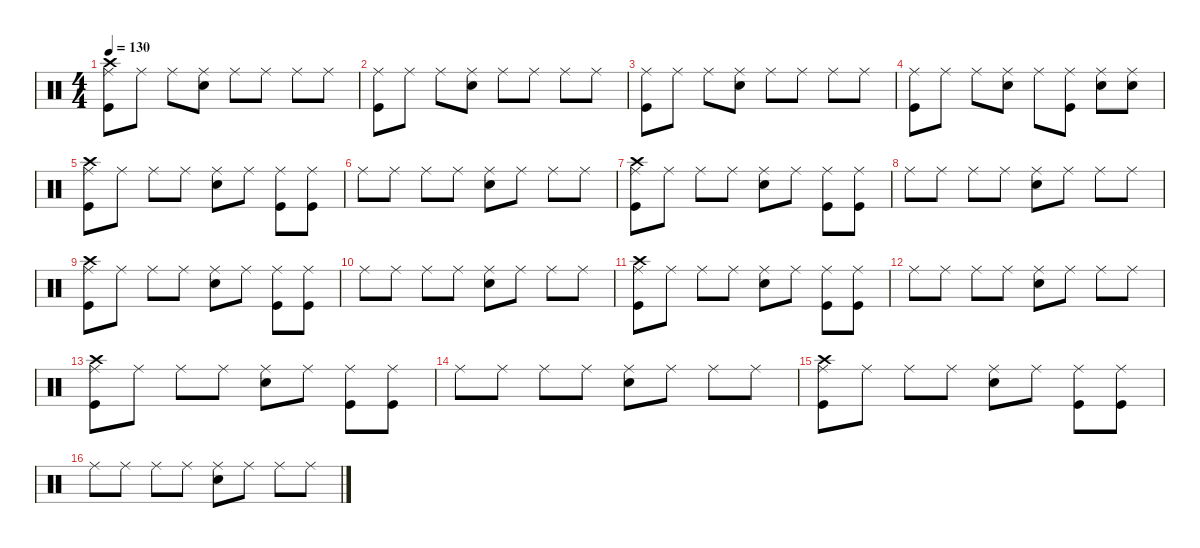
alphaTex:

\defaultSystemsLayout 4
\hideDynamics
\bracketExtendMode nobrackets
\singleTrackTrackNamePolicy hidden
\multiTrackTrackNamePolicy hidden
\firstSystemTrackNameMode fullname
\firstSystemTrackNameOrientation horizontal
\otherSystemsTrackNameOrientation horizontal
\track ("Percussion" "drm.") {instrument percussion}
\staff {score}
\articulation defaults
\ts (4 4)
\tempo 130
\clef neutral
\ks c
("Crash high (hit)" "Ride (middle)" "Kick (hit)").8{dy f beam Down} "Ride (middle)".8{beam Down} "Ride (middle)".8{beam Down} ("Ride (middle)" "Snare (hit) 2").8{beam Down} "Ride (middle)".8{beam Down} "Ride (middle)".8{beam Down} "Ride (middle)".8{beam Down} "Ride (middle)".8{beam Down} |
("Ride (middle)" "Kick (hit)").8{beam Down} "Ride (middle)".8{beam Down} "Ride (middle)".8{beam Down} ("Ride (middle)" "Snare (hit) 2").8{beam Down} "Ride (middle)".8{beam Down} "Ride (middle)".8{beam Down} "Ride (middle)".8{beam Down} "Ride (middle)".8{beam Down} |
("Ride (middle)" "Kick (hit)").8{beam Down} "Ride (middle)".8{beam Down} "Ride (middle)".8{beam Down} ("Ride (middle)" "Snare (hit) 2").8{beam Down} "Ride (middle)".8{beam Down} "Ride (middle)".8{beam Down} "Ride (middle)".8{beam Down} "Ride (middle)".8{beam Down} |
("Ride (middle)" "Kick (hit)").8{beam Down} "Ride (middle)".8{beam Down} "Ride (middle)".8{beam Down} ("Ride (middle)" "Snare (hit) 2").8{beam Down} "Ride (middle)".8{beam Down} ("Ride (middle)" "Kick (hit)").8{beam Down} ("Ride (middle)" "Snare (hit) 2").8{beam Down} ("Ride (middle)" "Snare (hit) 2").8{beam Down} |
("Crash high (hit)" "Ride (middle)" "Kick (hit)").8{beam Down} "Ride (middle)".8{beam Down} "Ride (middle)".8{beam Down} "Ride (middle)".8{beam Down} ("Ride (middle)" "Snare (hit) 2").8{beam Down} "Ride (middle)".8{beam Down} ("Ride (middle)" "Kick (hit)").8{beam Down} ("Ride (middle)" "Kick (hit)").8{beam Down} |
"Ride (middle)".8{beam Down} "Ride (middle)".8{beam Down} "Ride (middle)".8{beam Down} "Ride (middle)".8{beam Down} ("Ride (middle)" "Snare (hit) 2").8{beam Down} "Ride (middle)".8{beam Down} "Ride (middle)".8{beam Down} "Ride (middle)".8{beam Down} |
("Crash high (hit)" "Ride (middle)" "Kick (hit)").8{beam Down} "Ride (middle)".8{beam Down} "Ride (middle)".8{beam Down} "Ride (middle)".8{beam Down} ("Ride (middle)" "Snare (hit) 2").8{beam Down} "Ride (middle)".8{beam Down} ("Ride (middle)" "Kick (hit)").8{beam Down} ("Ride (middle)" "Kick (hit)").8{beam Down} |
"Ride (middle)".8{beam Down} "Ride (middle)".8{beam Down} "Ride (middle)".8{beam Down} "Ride (middle)".8{beam Down} ("Ride (middle)" "Snare (hit) 2").8{beam Down} "Ride (middle)".8{beam Down} "Ride (middle)".8{beam Down} "Ride (middle)".8{beam Down} |
("Crash high (hit)" "Ride (middle)" "Kick (hit)").8{beam Down} "Ride (middle)".8{beam Down} "Ride (middle)".8{beam Down} "Ride (middle)".8{beam Down} ("Ride (middle)" "Snare (hit) 2").8{beam Down} "Ride (middle)".8{beam Down} ("Ride (middle)" "Kick (hit)").8{beam Down} ("Ride (middle)" "Kick (hit)").8{beam Down} |
"Ride (middle)".8{beam Down} "Ride (middle)".8{beam Down} "Ride (middle)".8{beam Down} "Ride (middle)".8{beam Down} ("Ride (middle)" "Snare (hit) 2").8{beam Down} "Ride (middle)".8{beam Down} "Ride (middle)".8{beam Down} "Ride (middle)".8{beam Down} |
("Crash high (hit)" "Ride (middle)" "Kick (hit)").8{beam Down} "Ride (middle)".8{beam Down} "Ride (middle)".8{beam Down} "Ride (middle)".8{beam Down} ("Ride (middle)" "Snare (hit) 2").8{beam Down} "Ride (middle)".8{beam Down} ("Ride (middle)" "Kick (hit)").8{beam Down} ("Ride (middle)" "Kick (hit)").8{beam Down} |
"Ride (middle)".8{beam Down} "Ride (middle)".8{beam Down} "Ride (middle)".8{beam Down} "Ride (middle)".8{beam Down} ("Ride (middle)" "Snare (hit) 2").8{beam Down} "Ride (middle)".8{beam Down} "Ride (middle)".8{beam Down} "Ride (middle)".8{beam Down} |
("Crash high (hit)" "Ride (middle)" "Kick (hit)").8{beam Down} "Ride (middle)".8{beam Down} "Ride (middle)".8{beam Down} "Ride (middle)".8{beam Down} ("Ride (middle)" "Snare (hit) 2").8{beam Down} "Ride (middle)".8{beam Down} ("Ride (middle)" "Kick (hit)").8{beam Down} ("Ride (middle)" "Kick (hit)").8{beam Down} |
"Ride (middle)".8{beam Down} "Ride (middle)".8{beam Down} "Ride (middle)".8{beam Down} "Ride (middle)".8{beam Down} ("Ride (middle)" "Snare (hit) 2").8{beam Down} "Ride (middle)".8{beam Down} "Ride (middle)".8{beam Down} "Ride (middle)".8{beam Down} |
("Crash high (hit)" "Ride (middle)" "Kick (hit)").8{beam Down} "Ride (middle)".8{beam Down} "Ride (middle)".8{beam Down} "Ride (middle)".8{beam Down} ("Ride (middle)" "Snare (hit) 2").8{beam Down} "Ride (middle)".8{beam Down} ("Ride (middle)" "Kick (hit)").8{beam Down} ("Ride (middle)" "Kick (hit)").8{beam Down} |
"Ride (middle)".8{beam Down} "Ride (middle)".8{beam Down} "Ride (middle)".8{beam Down} "Ride (middle)".8{beam Down} ("Ride (middle)" "Snare (hit) 2").8{beam Down} "Ride (middle)".8{beam Down} "Ride (middle)".8{beam Down} "Ride (middle)".8{beam Down}
